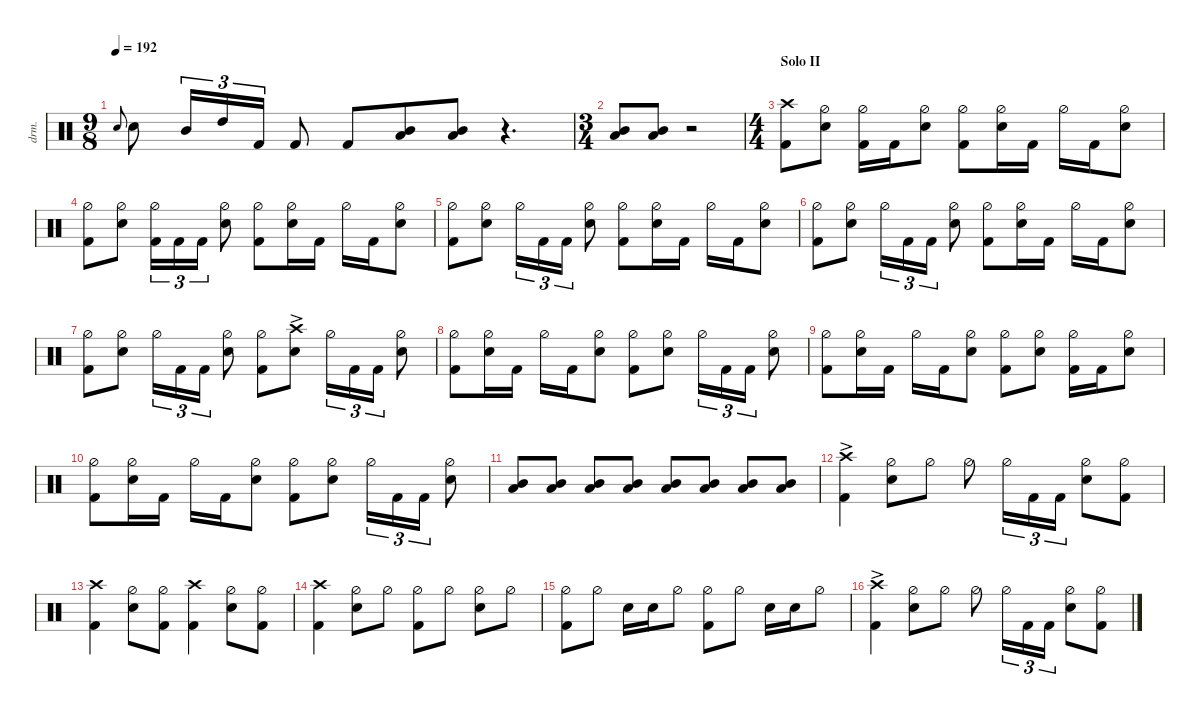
\defaultSystemsLayout 4
\hideDynamics
\bracketExtendMode nobrackets
\otherSystemsTrackNameOrientation horizontal
\track ("Drumkit" "drm.") {defaultSystemsLayout 4 multiBarRest instrument percussion}
\staff
\articulation defaults
\ts (9 8)
\tempo 192
\clef neutral
\ks c "Snare (hit) 2".8{gr onbeat dy f beam Up} "Snare (hit) 2".8{beam Down} "Mid Tom (hit)".16{tu (3 2) beam Up} "High Tom (hit)".16{tu (3 2) beam Up} "Kick (hit) 2".16{tu (3 2) beam Up} "Kick (hit) 2".8{beam Up} "Kick (hit) 2".8{beam Up}
("Mid Tom (hit)" "Low Tom (hit)").8{dy fff beam Up} ("Mid Tom (hit)" "Low Tom (hit)").8{beam Up} r.4{d beam Up} |
\ts (3 4)
\beaming (8 2 2 2)
("Mid Tom (hit)" "Low Tom (hit)").8{beam Up} ("Mid Tom (hit)" "Low Tom (hit)").8{beam Up} r.2{beam Up} |
\ts (4 4)
\beaming (8 2 2 2 2)
\section ("" "Solo II")
("Crash high (hit)" "Kick (hit) 2").8{dy f beam Down} ("Hi-Hat (half)" "Snare (hit) 2").8{beam Down} ("Hi-Hat (half)" "Kick (hit) 2").16{beam Down} "Kick (hit) 2".16{beam Down} ("Hi-Hat (half)" "Snare (hit) 2").8{beam Down} ("Hi-Hat (half)" "Kick (hit) 2").8{beam Down} ("Hi-Hat (half)" "Snare (hit) 2").16{beam Down} "Kick (hit) 2".16{beam Down} "Hi-Hat (half)".16{beam Down} "Kick (hit) 2".16{beam Down} ("Hi-Hat (half)" "Snare (hit) 2").8{beam Down} |
("Kick (hit) 2" "Hi-Hat (half)").8{beam Down} ("Hi-Hat (half)" "Snare (hit) 2").8{beam Down} ("Hi-Hat (half)" "Kick (hit) 2").16{tu (3 2) beam Down} "Kick (hit) 2".16{tu (3 2) beam Down} "Kick (hit) 2".16{tu (3 2) beam Down} ("Hi-Hat (half)" "Snare (hit) 2").8{beam Down} ("Hi-Hat (half)" "Kick (hit) 2").8{beam Down} ("Hi-Hat (half)" "Snare (hit) 2").16{beam Down} "Kick (hit) 2".16{beam Down} "Hi-Hat (half)".16{beam Down} "Kick (hit) 2".16{beam Down} ("Hi-Hat (half)" "Snare (hit) 2").8{beam Down} |
("Kick (hit) 2" "Hi-Hat (half)").8{beam Down} ("Hi-Hat (half)" "Snare (hit) 2").8{beam Down} "Hi-Hat (half)".16{tu (3 2) beam Down} "Kick (hit) 2".16{tu (3 2) beam Down} "Kick (hit) 2".16{tu (3 2) beam Down} ("Hi-Hat (half)" "Snare (hit) 2").8{beam Down} ("Hi-Hat (half)" "Kick (hit) 2").8{beam Down} ("Hi-Hat (half)" "Snare (hit) 2").16{beam Down} "Kick (hit) 2".16{beam Down} "Hi-Hat (half)".16{beam Down} "Kick (hit) 2".16{beam Down} ("Hi-Hat (half)" "Snare (hit) 2").8{beam Down} |
("Kick (hit) 2" "Hi-Hat (half)").8{beam Down} ("Hi-Hat (half)" "Snare (hit) 2").8{beam Down} "Hi-Hat (half)".16{tu (3 2) beam Down} "Kick (hit) 2".16{tu (3 2) beam Down} "Kick (hit) 2".16{tu (3 2) beam Down} ("Hi-Hat (half)" "Snare (hit) 2").8{beam Down} ("Hi-Hat (half)" "Kick (hit) 2").8{beam Down} ("Hi-Hat (half)" "Snare (hit) 2").16{beam Down} "Kick (hit) 2".16{beam Down} "Hi-Hat (half)".16{beam Down} "Kick (hit) 2".16{beam Down} ("Hi-Hat (half)" "Snare (hit) 2").8{beam Down} |
("Kick (hit) 2" "Hi-Hat (half)").8{beam Down} ("Hi-Hat (half)" "Snare (hit) 2").8{beam Down} "Hi-Hat (half)".16{tu (3 2) beam Down} "Kick (hit) 2".16{tu (3 2) beam Down} "Kick (hit) 2".16{tu (3 2) beam Down} ("Hi-Hat (half)" "Snare (hit) 2").8{beam Down} ("Hi-Hat (half)" "Kick (hit) 2").8{beam Down} ("Snare (hit) 2" "Crash high (hit)"{ac}).8{beam Down} "Hi-Hat (half)".16{tu (3 2) beam Down} "Kick (hit) 2".16{tu (3 2) beam Down} "Kick (hit) 2".16{tu (3 2) beam Down} ("Hi-Hat (half)" "Snare (hit) 2").8{beam Down} |
("Hi-Hat (half)" "Kick (hit) 2").8{beam Down} ("Hi-Hat (half)" "Snare (hit) 2").16{beam Down} "Kick (hit) 2".16{beam Down} "Hi-Hat (half)".16{beam Down} "Kick (hit) 2".16{beam Down} ("Hi-Hat (half)" "Snare (hit) 2").8{beam Down} ("Kick (hit) 2" "Hi-Hat (half)").8{beam Down} ("Hi-Hat (half)" "Snare (hit) 2").8{beam Down} "Hi-Hat (half)".16{tu (3 2) beam Down} "Kick (hit) 2".16{tu (3 2) beam Down} "Kick (hit) 2".16{tu (3 2) beam Down} ("Hi-Hat (half)" "Snare (hit) 2").8{beam Down} |
("Hi-Hat (half)" "Kick (hit) 2").8{beam Down} ("Hi-Hat (half)" "Snare (hit) 2").16{beam Down} "Kick (hit) 2".16{beam Down} "Hi-Hat (half)".16{beam Down} "Kick (hit) 2".16{beam Down} ("Hi-Hat (half)" "Snare (hit) 2").8{beam Down} ("Kick (hit) 2" "Hi-Hat (half)").8{beam Down} ("Hi-Hat (half)" "Snare (hit) 2").8{beam Down} ("Hi-Hat (half)" "Kick (hit) 2").16{beam Down} "Kick (hit) 2".16{beam Down} ("Hi-Hat (half)" "Snare (hit) 2").8{beam Down} |
("Hi-Hat (half)" "Kick (hit) 2").8{beam Down} ("Hi-Hat (half)" "Snare (hit) 2").16{beam Down} "Kick (hit) 2".16{beam Down} "Hi-Hat (half)".16{beam Down} "Kick (hit) 2".16{beam Down} ("Hi-Hat (half)" "Snare (hit) 2").8{beam Down} ("Kick (hit) 2" "Hi-Hat (half)").8{beam Down} ("Hi-Hat (half)" "Snare (hit) 2").8{beam Down} "Hi-Hat (half)".16{tu (3 2) beam Down} "Kick (hit) 2".16{tu (3 2) beam Down} "Kick (hit) 2".16{tu (3 2) beam Down} ("Hi-Hat (half)" "Snare (hit) 2").8{beam Down} |
("Mid Tom (hit)" "Low Tom (hit)").8{dy fff beam Up} ("Mid Tom (hit)" "Low Tom (hit)").8{beam Up} ("Mid Tom (hit)" "Low Tom (hit)").8{beam Up} ("Mid Tom (hit)" "Low Tom (hit)").8{beam Up} ("Mid Tom (hit)" "Low Tom (hit)").8{beam Up} ("Mid Tom (hit)" "Low Tom (hit)").8{beam Up} ("Mid Tom (hit)" "Low Tom (hit)").8{beam Up} ("Mid Tom (hit)" "Low Tom (hit)").8{beam Up} |
("Kick (hit) 2" "Crash high (hit)"{ac}).4{dy f beam Down} ("Hi-Hat (half)" "Snare (hit) 2").8{beam Down} "Hi-Hat (half)".8{beam Down} "Hi-Hat (half)".8{beam Down} "Hi-Hat (half)".16{tu (3 2) beam Down} "Kick (hit) 2".16{tu (3 2) beam Down} "Kick (hit) 2".16{tu (3 2) beam Down} ("Hi-Hat (half)" "Snare (hit) 2").8{beam Down} ("Hi-Hat (half)" "Kick (hit) 2").8{beam Down} |
("Kick (hit) 2" "Crash high (hit)").4{beam Down} ("Hi-Hat (half)" "Snare (hit) 2").8{beam Down} ("Kick (hit) 2" "Hi-Hat (half)").8{beam Down} ("Kick (hit) 2" "Crash high (hit)").4{beam Down} ("Hi-Hat (half)" "Snare (hit) 2").8{beam Down} ("Kick (hit) 2" "Hi-Hat (half)").8{beam Down} |
("Kick (hit) 2" "Crash high (hit)").4{beam Down} ("Hi-Hat (half)" "Snare (hit) 2").8{beam Down} "Hi-Hat (half)".8{beam Down} ("Hi-Hat (half)" "Kick (hit) 2").8{beam Down} "Hi-Hat (half)".8{beam Down} ("Hi-Hat (half)" "Snare (hit) 2").8{beam Down} "Hi-Hat (half)".8{beam Down} |
("Hi-Hat (half)" "Kick (hit) 2").8{beam Down} "Hi-Hat (half)".8{beam Down} "Snare (hit) 2".16{beam Down} "Snare (hit) 2".16{beam Down} "Hi-Hat (half)".8{beam Down} ("Hi-Hat (half)" "Kick (hit) 2").8{beam Down} "Hi-Hat (half)".8{beam Down} "Snare (hit) 2".16{beam Down} "Snare (hit) 2".16{beam Down} "Hi-Hat (half)".8{beam Down} |
("Kick (hit) 2" "Crash high (hit)"{ac}).4{beam Down} ("Hi-Hat (half)" "Snare (hit) 2").8{beam Down} "Hi-Hat (half)".8{beam Down} "Hi-Hat (half)".8{beam Down} "Hi-Hat (half)".16{tu (3 2) beam Down} "Kick (hit) 2".16{tu (3 2) beam Down} "Kick (hit) 2".16{tu (3 2) beam Down} ("Hi-Hat (half)" "Snare (hit) 2").8{beam Down} ("Hi-Hat (half)" "Kick (hit) 2").8{beam Down}
